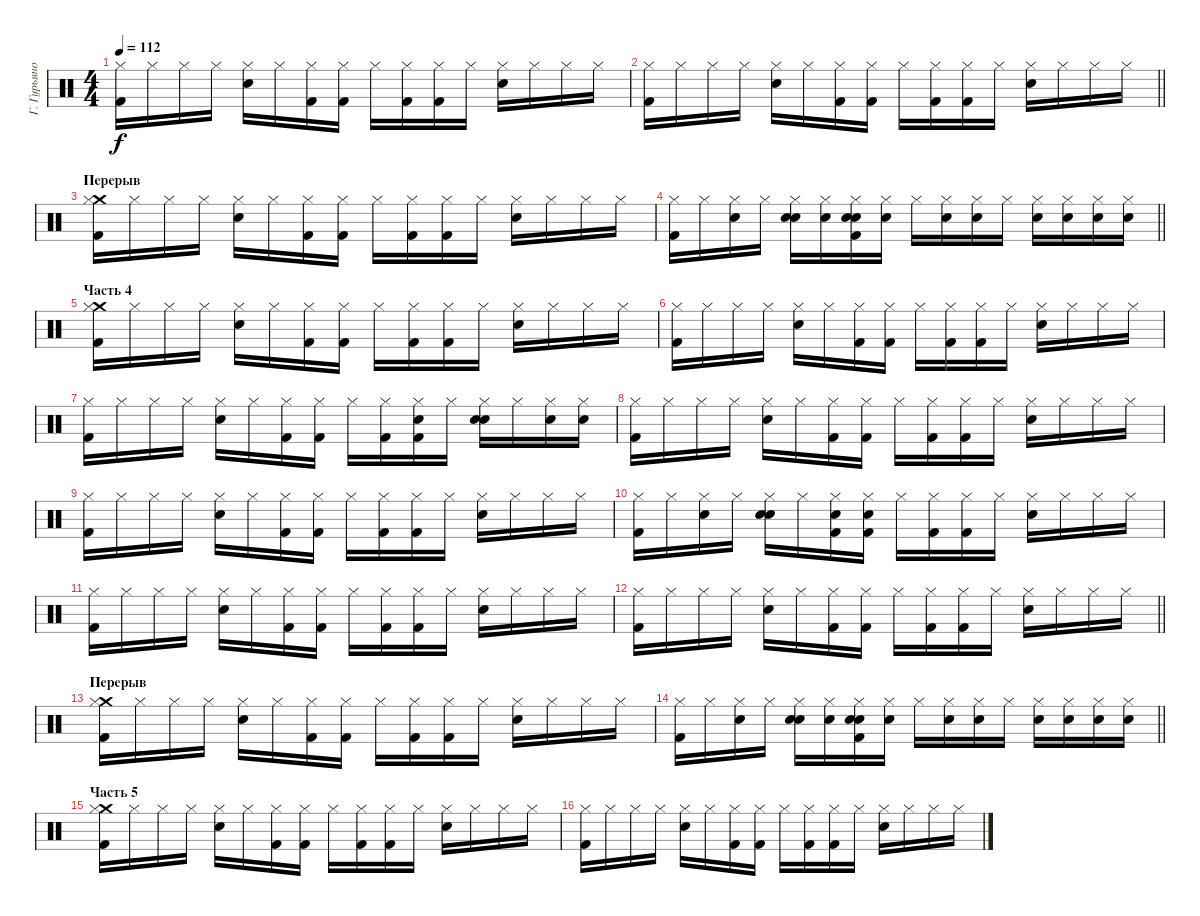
\track ("Г. Гурьянов" "Г. Гурьяно") {instrument percussion}
\staff {score}
\articulation defaults
\ts (4 4)
\tempo 112
\clef neutral
\ks c
("Kick (hit) 2" "Hi-Hat (closed)").16{dy f} "Hi-Hat (closed)".16 "Hi-Hat (closed)".16 "Hi-Hat (closed)".16 ("Snare (hit) 2" "Hi-Hat (closed)").16 "Hi-Hat (closed)".16 ("Kick (hit) 2" "Hi-Hat (closed)").16 ("Kick (hit) 2" "Hi-Hat (closed)").16 "Hi-Hat (closed)".16 ("Kick (hit) 2" "Hi-Hat (closed)").16 ("Kick (hit) 2" "Hi-Hat (closed)").16 "Hi-Hat (closed)".16 ("Snare (hit) 2" "Hi-Hat (closed)").16 "Hi-Hat (closed)".16 "Hi-Hat (closed)".16 "Hi-Hat (closed)".16 |
\barLineRight lightlight
("Kick (hit) 2" "Hi-Hat (closed)").16 "Hi-Hat (closed)".16 "Hi-Hat (closed)".16 "Hi-Hat (closed)".16 ("Snare (hit) 2" "Hi-Hat (closed)").16 "Hi-Hat (closed)".16 ("Kick (hit) 2" "Hi-Hat (closed)").16 ("Kick (hit) 2" "Hi-Hat (closed)").16 "Hi-Hat (closed)".16 ("Kick (hit) 2" "Hi-Hat (closed)").16 ("Kick (hit) 2" "Hi-Hat (closed)").16 "Hi-Hat (closed)".16 ("Snare (hit) 2" "Hi-Hat (closed)").16 "Hi-Hat (closed)".16 "Hi-Hat (closed)".16 "Hi-Hat (closed)".16 |
\section ("" "Перерыв")
("Kick (hit) 2" "Crash medium (hit)" "Hi-Hat (closed)").16 "Hi-Hat (closed)".16 "Hi-Hat (closed)".16 "Hi-Hat (closed)".16 ("Snare (hit) 2" "Hi-Hat (closed)").16 "Hi-Hat (closed)".16 ("Kick (hit) 2" "Hi-Hat (closed)").16 ("Kick (hit) 2" "Hi-Hat (closed)").16 "Hi-Hat (closed)".16 ("Kick (hit) 2" "Hi-Hat (closed)").16 ("Kick (hit) 2" "Hi-Hat (closed)").16 "Hi-Hat (closed)".16 ("Snare (hit) 2" "Hi-Hat (closed)").16 "Hi-Hat (closed)".16 "Hi-Hat (closed)".16 "Hi-Hat (closed)".16 |
\barLineRight lightlight
("Kick (hit) 2" "Hi-Hat (closed)").16 "Hi-Hat (closed)".16 ("Hand Clap (hit)" "Hi-Hat (closed)").16 "Hi-Hat (closed)".16 ("Snare (hit) 2" "Hand Clap (hit)" "Hi-Hat (closed)").16 ("Snare (hit) 2" "Hi-Hat (closed)").16 ("Kick (hit) 2" "Snare (hit) 2" "Hand Clap (hit)" "Hi-Hat (closed)").16 ("Hand Clap (hit)" "Hi-Hat (closed)").16 "Hi-Hat (closed)".16 ("Snare (hit) 2" "Hi-Hat (closed)").16 ("Snare (hit) 2" "Hi-Hat (closed)").16 "Hi-Hat (closed)".16 ("Snare (hit) 2" "Hi-Hat (closed)").16 ("Snare (hit) 2" "Hi-Hat (closed)").16 ("Snare (hit) 2" "Hi-Hat (closed)").16 ("Snare (hit) 2" "Hi-Hat (closed)").16 |
\section ("" "Часть 4")
("Kick (hit) 2" "Crash medium (hit)" "Hi-Hat (closed)").16 "Hi-Hat (closed)".16 "Hi-Hat (closed)".16 "Hi-Hat (closed)".16 ("Snare (hit) 2" "Hi-Hat (closed)").16 "Hi-Hat (closed)".16 ("Kick (hit) 2" "Hi-Hat (closed)").16 ("Kick (hit) 2" "Hi-Hat (closed)").16 "Hi-Hat (closed)".16 ("Kick (hit) 2" "Hi-Hat (closed)").16 ("Kick (hit) 2" "Hi-Hat (closed)").16 "Hi-Hat (closed)".16 ("Snare (hit) 2" "Hi-Hat (closed)").16 "Hi-Hat (closed)".16 "Hi-Hat (closed)".16 "Hi-Hat (closed)".16 |
("Kick (hit) 2" "Hi-Hat (closed)").16 "Hi-Hat (closed)".16 "Hi-Hat (closed)".16 "Hi-Hat (closed)".16 ("Snare (hit) 2" "Hi-Hat (closed)").16 "Hi-Hat (closed)".16 ("Kick (hit) 2" "Hi-Hat (closed)").16 ("Kick (hit) 2" "Hi-Hat (closed)").16 "Hi-Hat (closed)".16 ("Kick (hit) 2" "Hi-Hat (closed)").16 ("Kick (hit) 2" "Hi-Hat (closed)").16 "Hi-Hat (closed)".16 ("Snare (hit) 2" "Hi-Hat (closed)").16 "Hi-Hat (closed)".16 "Hi-Hat (closed)".16 "Hi-Hat (closed)".16 |
("Kick (hit) 2" "Hi-Hat (closed)").16 "Hi-Hat (closed)".16 "Hi-Hat (closed)".16 "Hi-Hat (closed)".16 ("Snare (hit) 2" "Hi-Hat (closed)").16 "Hi-Hat (closed)".16 ("Kick (hit) 2" "Hi-Hat (closed)").16 ("Kick (hit) 2" "Hi-Hat (closed)").16 "Hi-Hat (closed)".16 ("Kick (hit) 2" "Hi-Hat (closed)").16 ("Kick (hit) 2" "Hand Clap (hit)" "Hi-Hat (closed)").16 "Hi-Hat (closed)".16 ("Snare (hit) 2" "Hand Clap (hit)" "Hi-Hat (closed)").16 "Hi-Hat (closed)".16 ("Hand Clap (hit)" "Hi-Hat (closed)").16 ("Hand Clap (hit)" "Hi-Hat (closed)").16 |
("Kick (hit) 2" "Hi-Hat (closed)").16 "Hi-Hat (closed)".16 "Hi-Hat (closed)".16 "Hi-Hat (closed)".16 ("Snare (hit) 2" "Hi-Hat (closed)").16 "Hi-Hat (closed)".16 ("Kick (hit) 2" "Hi-Hat (closed)").16 ("Kick (hit) 2" "Hi-Hat (closed)").16 "Hi-Hat (closed)".16 ("Kick (hit) 2" "Hi-Hat (closed)").16 ("Kick (hit) 2" "Hi-Hat (closed)").16 "Hi-Hat (closed)".16 ("Snare (hit) 2" "Hi-Hat (closed)").16 "Hi-Hat (closed)".16 "Hi-Hat (closed)".16 "Hi-Hat (closed)".16 |
("Kick (hit) 2" "Hi-Hat (closed)").16 "Hi-Hat (closed)".16 "Hi-Hat (closed)".16 "Hi-Hat (closed)".16 ("Snare (hit) 2" "Hi-Hat (closed)").16 "Hi-Hat (closed)".16 ("Kick (hit) 2" "Hi-Hat (closed)").16 ("Kick (hit) 2" "Hi-Hat (closed)").16 "Hi-Hat (closed)".16 ("Kick (hit) 2" "Hi-Hat (closed)").16 ("Kick (hit) 2" "Hi-Hat (closed)").16 "Hi-Hat (closed)".16 ("Snare (hit) 2" "Hi-Hat (closed)").16 "Hi-Hat (closed)".16 "Hi-Hat (closed)".16 "Hi-Hat (closed)".16 |
("Kick (hit) 2" "Hi-Hat (closed)").16 "Hi-Hat (closed)".16 ("Hand Clap (hit)" "Hi-Hat (closed)").16 "Hi-Hat (closed)".16 ("Snare (hit) 2" "Hand Clap (hit)" "Hi-Hat (closed)").16 "Hi-Hat (closed)".16 ("Kick (hit) 2" "Hand Clap (hit)" "Hi-Hat (closed)").16 ("Kick (hit) 2" "Hand Clap (hit)" "Hi-Hat (closed)").16 "Hi-Hat (closed)".16 ("Kick (hit) 2" "Hi-Hat (closed)").16 ("Kick (hit) 2" "Hi-Hat (closed)").16 "Hi-Hat (closed)".16 ("Snare (hit) 2" "Hi-Hat (closed)").16 "Hi-Hat (closed)".16 "Hi-Hat (closed)".16 "Hi-Hat (closed)".16 |
("Kick (hit) 2" "Hi-Hat (closed)").16 "Hi-Hat (closed)".16 "Hi-Hat (closed)".16 "Hi-Hat (closed)".16 ("Snare (hit) 2" "Hi-Hat (closed)").16 "Hi-Hat (closed)".16 ("Kick (hit) 2" "Hi-Hat (closed)").16 ("Kick (hit) 2" "Hi-Hat (closed)").16 "Hi-Hat (closed)".16 ("Kick (hit) 2" "Hi-Hat (closed)").16 ("Kick (hit) 2" "Hi-Hat (closed)").16 "Hi-Hat (closed)".16 ("Snare (hit) 2" "Hi-Hat (closed)").16 "Hi-Hat (closed)".16 "Hi-Hat (closed)".16 "Hi-Hat (closed)".16 |
\barLineRight lightlight
("Kick (hit) 2" "Hi-Hat (closed)").16 "Hi-Hat (closed)".16 "Hi-Hat (closed)".16 "Hi-Hat (closed)".16 ("Snare (hit) 2" "Hi-Hat (closed)").16 "Hi-Hat (closed)".16 ("Kick (hit) 2" "Hi-Hat (closed)").16 ("Kick (hit) 2" "Hi-Hat (closed)").16 "Hi-Hat (closed)".16 ("Kick (hit) 2" "Hi-Hat (closed)").16 ("Kick (hit) 2" "Hi-Hat (closed)").16 "Hi-Hat (closed)".16 ("Snare (hit) 2" "Hi-Hat (closed)").16 "Hi-Hat (closed)".16 "Hi-Hat (closed)".16 "Hi-Hat (closed)".16 |
\section ("" "Перерыв")
("Kick (hit) 2" "Crash medium (hit)" "Hi-Hat (closed)").16 "Hi-Hat (closed)".16 "Hi-Hat (closed)".16 "Hi-Hat (closed)".16 ("Snare (hit) 2" "Hi-Hat (closed)").16 "Hi-Hat (closed)".16 ("Kick (hit) 2" "Hi-Hat (closed)").16 ("Kick (hit) 2" "Hi-Hat (closed)").16 "Hi-Hat (closed)".16 ("Kick (hit) 2" "Hi-Hat (closed)").16 ("Kick (hit) 2" "Hi-Hat (closed)").16 "Hi-Hat (closed)".16 ("Snare (hit) 2" "Hi-Hat (closed)").16 "Hi-Hat (closed)".16 "Hi-Hat (closed)".16 "Hi-Hat (closed)".16 |
\barLineRight lightlight
("Kick (hit) 2" "Hi-Hat (closed)").16 "Hi-Hat (closed)".16 ("Hand Clap (hit)" "Hi-Hat (closed)").16 "Hi-Hat (closed)".16 ("Snare (hit) 2" "Hand Clap (hit)" "Hi-Hat (closed)").16 ("Snare (hit) 2" "Hi-Hat (closed)").16 ("Kick (hit) 2" "Snare (hit) 2" "Hand Clap (hit)" "Hi-Hat (closed)").16 ("Hand Clap (hit)" "Hi-Hat (closed)").16 "Hi-Hat (closed)".16 ("Snare (hit) 2" "Hi-Hat (closed)").16 ("Snare (hit) 2" "Hi-Hat (closed)").16 "Hi-Hat (closed)".16 ("Snare (hit) 2" "Hi-Hat (closed)").16 ("Snare (hit) 2" "Hi-Hat (closed)").16 ("Snare (hit) 2" "Hi-Hat (closed)").16 ("Snare (hit) 2" "Hi-Hat (closed)").16 |
\section ("" "Часть 5")
("Kick (hit) 2" "Crash medium (hit)" "Hi-Hat (closed)").16 "Hi-Hat (closed)".16 "Hi-Hat (closed)".16 "Hi-Hat (closed)".16 ("Snare (hit) 2" "Hi-Hat (closed)").16 "Hi-Hat (closed)".16 ("Kick (hit) 2" "Hi-Hat (closed)").16 ("Kick (hit) 2" "Hi-Hat (closed)").16 "Hi-Hat (closed)".16 ("Kick (hit) 2" "Hi-Hat (closed)").16 ("Kick (hit) 2" "Hi-Hat (closed)").16 "Hi-Hat (closed)".16 ("Snare (hit) 2" "Hi-Hat (closed)").16 "Hi-Hat (closed)".16 "Hi-Hat (closed)".16 "Hi-Hat (closed)".16 |
("Kick (hit) 2" "Hi-Hat (closed)").16 "Hi-Hat (closed)".16 "Hi-Hat (closed)".16 "Hi-Hat (closed)".16 ("Snare (hit) 2" "Hi-Hat (closed)").16 "Hi-Hat (closed)".16 ("Kick (hit) 2" "Hi-Hat (closed)").16 ("Kick (hit) 2" "Hi-Hat (closed)").16 "Hi-Hat (closed)".16 ("Kick (hit) 2" "Hi-Hat (closed)").16 ("Kick (hit) 2" "Hi-Hat (closed)").16 "Hi-Hat (closed)".16 ("Snare (hit) 2" "Hi-Hat (closed)").16 "Hi-Hat (closed)".16 "Hi-Hat (closed)".16 "Hi-Hat (closed)".16
